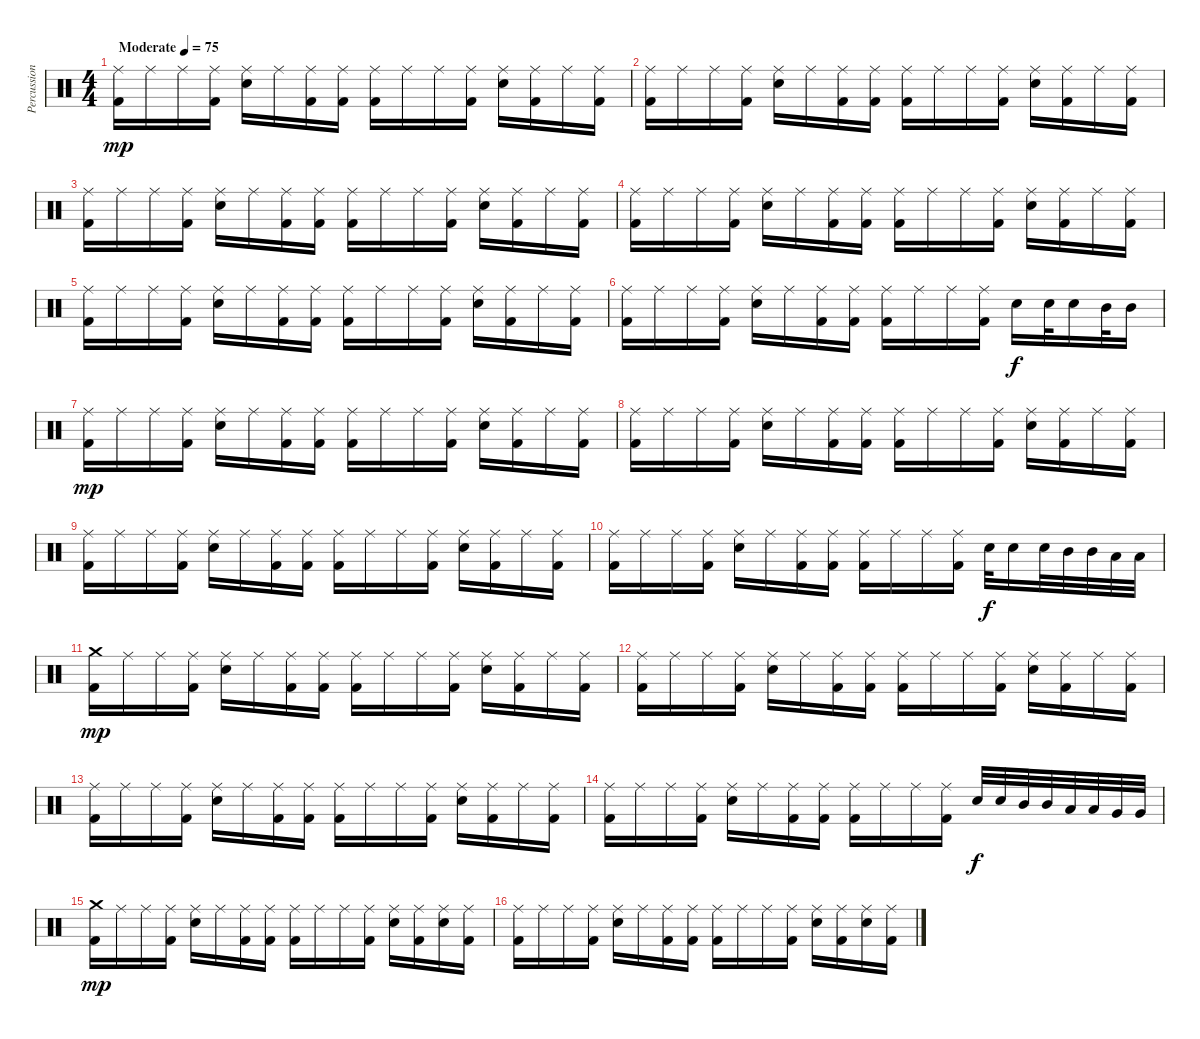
\track ("Percussions" "Percussion") {instrument percussion}
\staff {score}
\articulation defaults
\ts (4 4)
\tempo (75 "Moderate")
\clef neutral
\ks c
("Ride (middle)" "Kick (hit) 2").16{dy mp} "Ride (middle)".16 "Ride (middle)".16 ("Ride (middle)" "Kick (hit) 2").16 ("Ride (middle)" "Snare (hit) 2").16 "Ride (middle)".16 ("Ride (middle)" "Kick (hit) 2").16 ("Ride (middle)" "Kick (hit) 2").16 ("Ride (middle)" "Kick (hit) 2").16 "Ride (middle)".16 "Ride (middle)".16 ("Ride (middle)" "Kick (hit) 2").16 ("Ride (middle)" "Snare (hit) 2").16 ("Ride (middle)" "Kick (hit) 2").16 "Ride (middle)".16 ("Ride (middle)" "Kick (hit) 2").16 |
("Ride (middle)" "Kick (hit) 2").16 "Ride (middle)".16 "Ride (middle)".16 ("Ride (middle)" "Kick (hit) 2").16 ("Ride (middle)" "Snare (hit) 2").16 "Ride (middle)".16 ("Ride (middle)" "Kick (hit) 2").16 ("Ride (middle)" "Kick (hit) 2").16 ("Ride (middle)" "Kick (hit) 2").16 "Ride (middle)".16 "Ride (middle)".16 ("Ride (middle)" "Kick (hit) 2").16 ("Ride (middle)" "Snare (hit) 2").16 ("Ride (middle)" "Kick (hit) 2").16 "Ride (middle)".16 ("Ride (middle)" "Kick (hit) 2").16 |
("Ride (middle)" "Kick (hit) 2").16 "Ride (middle)".16 "Ride (middle)".16 ("Ride (middle)" "Kick (hit) 2").16 ("Ride (middle)" "Snare (hit) 2").16 "Ride (middle)".16 ("Ride (middle)" "Kick (hit) 2").16 ("Ride (middle)" "Kick (hit) 2").16 ("Ride (middle)" "Kick (hit) 2").16 "Ride (middle)".16 "Ride (middle)".16 ("Ride (middle)" "Kick (hit) 2").16 ("Ride (middle)" "Snare (hit) 2").16 ("Ride (middle)" "Kick (hit) 2").16 "Ride (middle)".16 ("Ride (middle)" "Kick (hit) 2").16 |
("Ride (middle)" "Kick (hit) 2").16 "Ride (middle)".16 "Ride (middle)".16 ("Ride (middle)" "Kick (hit) 2").16 ("Ride (middle)" "Snare (hit) 2").16 "Ride (middle)".16 ("Ride (middle)" "Kick (hit) 2").16 ("Ride (middle)" "Kick (hit) 2").16 ("Ride (middle)" "Kick (hit) 2").16 "Ride (middle)".16 "Ride (middle)".16 ("Ride (middle)" "Kick (hit) 2").16 ("Ride (middle)" "Snare (hit) 2").16 ("Ride (middle)" "Kick (hit) 2").16 "Ride (middle)".16 ("Ride (middle)" "Kick (hit) 2").16 |
("Ride (middle)" "Kick (hit) 2").16 "Ride (middle)".16 "Ride (middle)".16 ("Ride (middle)" "Kick (hit) 2").16 ("Ride (middle)" "Snare (hit) 2").16 "Ride (middle)".16 ("Ride (middle)" "Kick (hit) 2").16 ("Ride (middle)" "Kick (hit) 2").16 ("Ride (middle)" "Kick (hit) 2").16 "Ride (middle)".16 "Ride (middle)".16 ("Ride (middle)" "Kick (hit) 2").16 ("Ride (middle)" "Snare (hit) 2").16 ("Ride (middle)" "Kick (hit) 2").16 "Ride (middle)".16 ("Ride (middle)" "Kick (hit) 2").16 |
("Ride (middle)" "Kick (hit) 2").16 "Ride (middle)".16 "Ride (middle)".16 ("Ride (middle)" "Kick (hit) 2").16 ("Ride (middle)" "Snare (hit) 2").16 "Ride (middle)".16 ("Ride (middle)" "Kick (hit) 2").16 ("Ride (middle)" "Kick (hit) 2").16 ("Ride (middle)" "Kick (hit) 2").16 "Ride (middle)".16 "Ride (middle)".16 ("Ride (middle)" "Kick (hit) 2").16 "Snare (hit) 2".16{dy f} "Snare (hit) 2".32 "Snare (hit) 2".16 "Mid Tom (hit)".32 "Mid Tom (hit)".16 |
("Ride (middle)" "Kick (hit) 2").16{dy mp} "Ride (middle)".16 "Ride (middle)".16 ("Ride (middle)" "Kick (hit) 2").16 ("Ride (middle)" "Snare (hit) 2").16 "Ride (middle)".16 ("Ride (middle)" "Kick (hit) 2").16 ("Ride (middle)" "Kick (hit) 2").16 ("Ride (middle)" "Kick (hit) 2").16 "Ride (middle)".16 "Ride (middle)".16 ("Ride (middle)" "Kick (hit) 2").16 ("Ride (middle)" "Snare (hit) 2").16 ("Ride (middle)" "Kick (hit) 2").16 "Ride (middle)".16 ("Ride (middle)" "Kick (hit) 2").16 |
("Ride (middle)" "Kick (hit) 2").16 "Ride (middle)".16 "Ride (middle)".16 ("Ride (middle)" "Kick (hit) 2").16 ("Ride (middle)" "Snare (hit) 2").16 "Ride (middle)".16 ("Ride (middle)" "Kick (hit) 2").16 ("Ride (middle)" "Kick (hit) 2").16 ("Ride (middle)" "Kick (hit) 2").16 "Ride (middle)".16 "Ride (middle)".16 ("Ride (middle)" "Kick (hit) 2").16 ("Ride (middle)" "Snare (hit) 2").16 ("Ride (middle)" "Kick (hit) 2").16 "Ride (middle)".16 ("Ride (middle)" "Kick (hit) 2").16 |
("Ride (middle)" "Kick (hit) 2").16 "Ride (middle)".16 "Ride (middle)".16 ("Ride (middle)" "Kick (hit) 2").16 ("Ride (middle)" "Snare (hit) 2").16 "Ride (middle)".16 ("Ride (middle)" "Kick (hit) 2").16 ("Ride (middle)" "Kick (hit) 2").16 ("Ride (middle)" "Kick (hit) 2").16 "Ride (middle)".16 "Ride (middle)".16 ("Ride (middle)" "Kick (hit) 2").16 ("Ride (middle)" "Snare (hit) 2").16 ("Ride (middle)" "Kick (hit) 2").16 "Ride (middle)".16 ("Ride (middle)" "Kick (hit) 2").16 |
("Ride (middle)" "Kick (hit) 2").16 "Ride (middle)".16 "Ride (middle)".16 ("Ride (middle)" "Kick (hit) 2").16 ("Ride (middle)" "Snare (hit) 2").16 "Ride (middle)".16 ("Ride (middle)" "Kick (hit) 2").16 ("Ride (middle)" "Kick (hit) 2").16 ("Ride (middle)" "Kick (hit) 2").16 "Ride (middle)".16 "Ride (middle)".16 ("Ride (middle)" "Kick (hit) 2").16 "Snare (hit) 2".32{dy f} "Snare (hit) 2".16 "Snare (hit) 2".32 "Mid Tom (hit)".32 "Mid Tom (hit)".32 "Low Tom (hit)".32 "Low Tom (hit)".32 |
("Crash medium (hit)" "Kick (hit) 2").16{dy mp} "Ride (middle)".16 "Ride (middle)".16 ("Ride (middle)" "Kick (hit) 2").16 ("Ride (middle)" "Snare (hit) 2").16 "Ride (middle)".16 ("Ride (middle)" "Kick (hit) 2").16 ("Ride (middle)" "Kick (hit) 2").16 ("Ride (middle)" "Kick (hit) 2").16 "Ride (middle)".16 "Ride (middle)".16 ("Ride (middle)" "Kick (hit) 2").16 ("Ride (middle)" "Snare (hit) 2").16 ("Ride (middle)" "Kick (hit) 2").16 "Ride (middle)".16 ("Ride (middle)" "Kick (hit) 2").16 |
("Ride (middle)" "Kick (hit) 2").16 "Ride (middle)".16 "Ride (middle)".16 ("Ride (middle)" "Kick (hit) 2").16 ("Ride (middle)" "Snare (hit) 2").16 "Ride (middle)".16 ("Ride (middle)" "Kick (hit) 2").16 ("Ride (middle)" "Kick (hit) 2").16 ("Ride (middle)" "Kick (hit) 2").16 "Ride (middle)".16 "Ride (middle)".16 ("Ride (middle)" "Kick (hit) 2").16 ("Ride (middle)" "Snare (hit) 2").16 ("Ride (middle)" "Kick (hit) 2").16 "Ride (middle)".16 ("Ride (middle)" "Kick (hit) 2").16 |
("Ride (middle)" "Kick (hit) 2").16 "Ride (middle)".16 "Ride (middle)".16 ("Ride (middle)" "Kick (hit) 2").16 ("Ride (middle)" "Snare (hit) 2").16 "Ride (middle)".16 ("Ride (middle)" "Kick (hit) 2").16 ("Ride (middle)" "Kick (hit) 2").16 ("Ride (middle)" "Kick (hit) 2").16 "Ride (middle)".16 "Ride (middle)".16 ("Ride (middle)" "Kick (hit) 2").16 ("Ride (middle)" "Snare (hit) 2").16 ("Ride (middle)" "Kick (hit) 2").16 "Ride (middle)".16 ("Ride (middle)" "Kick (hit) 2").16 |
("Ride (middle)" "Kick (hit) 2").16 "Ride (middle)".16 "Ride (middle)".16 ("Ride (middle)" "Kick (hit) 2").16 ("Ride (middle)" "Snare (hit) 2").16 "Ride (middle)".16 ("Ride (middle)" "Kick (hit) 2").16 ("Ride (middle)" "Kick (hit) 2").16 ("Ride (middle)" "Kick (hit) 2").16 "Ride (middle)".16 "Ride (middle)".16 ("Ride (middle)" "Kick (hit) 2").16 "Snare (hit) 2".32{dy f} "Snare (hit) 2".32 "Mid Tom (hit)".32 "Mid Tom (hit)".32 "Low Tom (hit)".32 "Low Tom (hit)".32 "Very Low Tom (hit)".32 "Very Low Tom (hit)".32 |
("Crash medium (hit)" "Kick (hit) 2").16{dy mp} "Ride (middle)".16 "Ride (middle)".16 ("Ride (middle)" "Kick (hit) 2").16 ("Ride (middle)" "Snare (hit) 2").16 "Ride (middle)".16 ("Ride (middle)" "Kick (hit) 2").16 ("Ride (middle)" "Kick (hit) 2").16 ("Ride (middle)" "Kick (hit) 2").16 "Ride (middle)".16 "Ride (middle)".16 ("Ride (middle)" "Kick (hit) 2").16 ("Ride (middle)" "Snare (hit) 2").16 ("Ride (middle)" "Kick (hit) 2").16 ("Ride (middle)" "Snare (hit) 2").16 ("Ride (middle)" "Kick (hit) 2").16 |
("Ride (middle)" "Kick (hit) 2").16 "Ride (middle)".16 "Ride (middle)".16 ("Ride (middle)" "Kick (hit) 2").16 ("Ride (middle)" "Snare (hit) 2").16 "Ride (middle)".16 ("Ride (middle)" "Kick (hit) 2").16 ("Ride (middle)" "Kick (hit) 2").16 ("Ride (middle)" "Kick (hit) 2").16 "Ride (middle)".16 "Ride (middle)".16 ("Ride (middle)" "Kick (hit) 2").16 ("Ride (middle)" "Snare (hit) 2").16 ("Ride (middle)" "Kick (hit) 2").16 ("Ride (middle)" "Snare (hit) 2").16 ("Ride (middle)" "Kick (hit) 2").16
